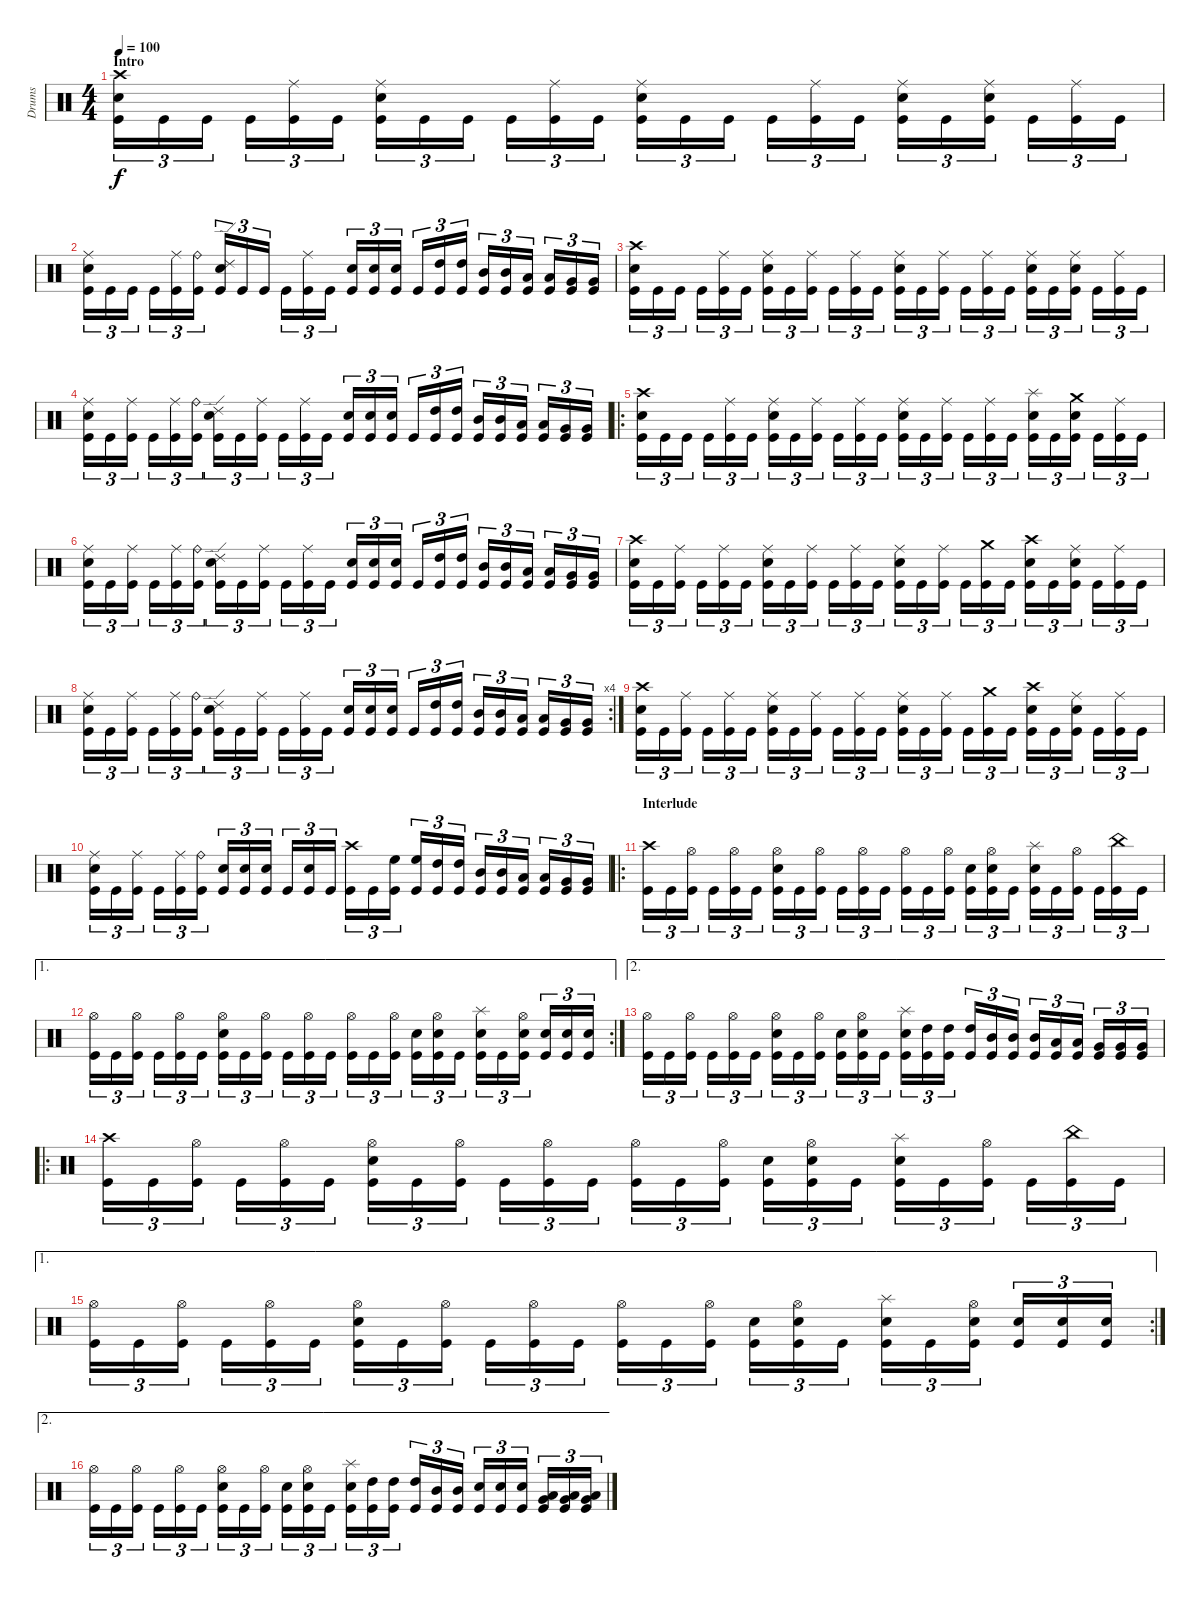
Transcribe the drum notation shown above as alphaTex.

\track ("Drums" "Drums") {instrument percussion}
\staff {score}
\articulation defaults
\ts (4 4)
\section ("" "Intro")
\tempo 100
\clef neutral
\ks c
("Crash high (hit)" "Electric Snare (hit)" "Kick (hit)").16{tu (3 2) dy f} "Kick (hit)".16{tu (3 2)} "Kick (hit)".16{tu (3 2)} "Kick (hit)".16{tu (3 2)} ("Ride (middle)" "Kick (hit)").16{tu (3 2)} "Kick (hit)".16{tu (3 2)} ("Ride (middle)" "Electric Snare (hit)" "Kick (hit)").16{tu (3 2)} "Kick (hit)".16{tu (3 2)} "Kick (hit)".16{tu (3 2)} "Kick (hit)".16{tu (3 2)} ("Ride (middle)" "Kick (hit)").16{tu (3 2)} "Kick (hit)".16{tu (3 2)} ("Ride (middle)" "Electric Snare (hit)" "Kick (hit)").16{tu (3 2)} "Kick (hit)".16{tu (3 2)} "Kick (hit)".16{tu (3 2)} "Kick (hit)".16{tu (3 2)} ("Ride (middle)" "Kick (hit)").16{tu (3 2)} "Kick (hit)".16{tu (3 2)} ("Ride (middle)" "Electric Snare (hit)" "Kick (hit)").16{tu (3 2)} "Kick (hit)".16{tu (3 2)} ("Ride (middle)" "Electric Snare (hit)" "Kick (hit)").16{tu (3 2)} "Kick (hit)".16{tu (3 2)} ("Ride (middle)" "Kick (hit)").16{tu (3 2)} "Kick (hit)".16{tu (3 2)} |
("Ride (middle)" "Electric Snare (hit)" "Kick (hit)").16{tu (3 2)} "Kick (hit)".16{tu (3 2)} "Kick (hit)".16{tu (3 2)} "Kick (hit)".16{tu (3 2)} ("Ride (middle)" "Kick (hit)").16{tu (3 2)} ("Ride (bell)" "Kick (hit)").16{tu (3 2)} ("Ride (edge) 2" "Electric Snare (hit)" "Kick (hit)").16{tu (3 2)} "Kick (hit)".16{tu (3 2)} "Kick (hit)".16{tu (3 2)} "Kick (hit)".16{tu (3 2)} ("Ride (middle)" "Kick (hit)").16{tu (3 2)} "Kick (hit)".16{tu (3 2)} ("Electric Snare (hit)" "Kick (hit)").16{tu (3 2)} ("Electric Snare (hit)" "Kick (hit)").16{tu (3 2)} ("Electric Snare (hit)" "Kick (hit)").16{tu (3 2)} "Kick (hit)".16{tu (3 2)} ("High Tom (hit)" "Kick (hit)").16{tu (3 2)} ("High Tom (hit)" "Kick (hit)").16{tu (3 2)} ("Mid Tom (hit)" "Kick (hit)").16{tu (3 2)} ("Mid Tom (hit)" "Kick (hit)").16{tu (3 2)} ("Low Tom (hit)" "Kick (hit)").16{tu (3 2)} ("Low Tom (hit)" "Kick (hit)").16{tu (3 2)} ("Very Low Tom (hit)" "Kick (hit)").16{tu (3 2)} ("Very Low Tom (hit)" "Kick (hit)").16{tu (3 2)} |
("Crash high (hit)" "Electric Snare (hit)" "Kick (hit)").16{tu (3 2)} "Kick (hit)".16{tu (3 2)} "Kick (hit)".16{tu (3 2)} "Kick (hit)".16{tu (3 2)} ("Ride (middle)" "Kick (hit)").16{tu (3 2)} "Kick (hit)".16{tu (3 2)} ("Ride (middle)" "Electric Snare (hit)" "Kick (hit)").16{tu (3 2)} "Kick (hit)".16{tu (3 2)} ("Ride (middle)" "Kick (hit)").16{tu (3 2)} "Kick (hit)".16{tu (3 2)} ("Ride (middle)" "Kick (hit)").16{tu (3 2)} "Kick (hit)".16{tu (3 2)} ("Ride (middle)" "Electric Snare (hit)" "Kick (hit)").16{tu (3 2)} "Kick (hit)".16{tu (3 2)} ("Ride (middle)" "Kick (hit)").16{tu (3 2)} "Kick (hit)".16{tu (3 2)} ("Ride (middle)" "Kick (hit)").16{tu (3 2)} "Kick (hit)".16{tu (3 2)} ("Ride (middle)" "Electric Snare (hit)" "Kick (hit)").16{tu (3 2)} "Kick (hit)".16{tu (3 2)} ("Ride (middle)" "Electric Snare (hit)" "Kick (hit)").16{tu (3 2)} "Kick (hit)".16{tu (3 2)} ("Ride (middle)" "Kick (hit)").16{tu (3 2)} "Kick (hit)".16{tu (3 2)} |
("Ride (middle)" "Electric Snare (hit)" "Kick (hit)").16{tu (3 2)} "Kick (hit)".16{tu (3 2)} ("Ride (middle)" "Kick (hit)").16{tu (3 2)} "Kick (hit)".16{tu (3 2)} ("Ride (middle)" "Kick (hit)").16{tu (3 2)} ("Ride (bell)" "Kick (hit)").16{tu (3 2)} ("Ride (edge) 2" "Electric Snare (hit)" "Kick (hit)").16{tu (3 2)} "Kick (hit)".16{tu (3 2)} ("Ride (middle)" "Kick (hit)").16{tu (3 2)} "Kick (hit)".16{tu (3 2)} ("Ride (middle)" "Kick (hit)").16{tu (3 2)} "Kick (hit)".16{tu (3 2)} ("Electric Snare (hit)" "Kick (hit)").16{tu (3 2)} ("Electric Snare (hit)" "Kick (hit)").16{tu (3 2)} ("Electric Snare (hit)" "Kick (hit)").16{tu (3 2)} "Kick (hit)".16{tu (3 2)} ("High Tom (hit)" "Kick (hit)").16{tu (3 2)} ("High Tom (hit)" "Kick (hit)").16{tu (3 2)} ("Mid Tom (hit)" "Kick (hit)").16{tu (3 2)} ("Mid Tom (hit)" "Kick (hit)").16{tu (3 2)} ("Low Tom (hit)" "Kick (hit)").16{tu (3 2)} ("Low Tom (hit)" "Kick (hit)").16{tu (3 2)} ("Very Low Tom (hit)" "Kick (hit)").16{tu (3 2)} ("Very Low Tom (hit)" "Kick (hit)").16{tu (3 2)} |
\ro
("Crash high (hit)" "Electric Snare (hit)" "Kick (hit)").16{tu (3 2)} "Kick (hit)".16{tu (3 2)} "Kick (hit)".16{tu (3 2)} "Kick (hit)".16{tu (3 2)} ("Ride (middle)" "Kick (hit)").16{tu (3 2)} "Kick (hit)".16{tu (3 2)} ("Ride (middle)" "Electric Snare (hit)" "Kick (hit)").16{tu (3 2)} "Kick (hit)".16{tu (3 2)} ("Ride (middle)" "Kick (hit)").16{tu (3 2)} "Kick (hit)".16{tu (3 2)} ("Ride (middle)" "Kick (hit)").16{tu (3 2)} "Kick (hit)".16{tu (3 2)} ("Ride (middle)" "Electric Snare (hit)" "Kick (hit)").16{tu (3 2)} "Kick (hit)".16{tu (3 2)} ("Ride (middle)" "Kick (hit)").16{tu (3 2)} "Kick (hit)".16{tu (3 2)} ("Ride (middle)" "Kick (hit)").16{tu (3 2)} "Kick (hit)".16{tu (3 2)} ("Splash (hit)" "Electric Snare (hit)" "Kick (hit)").16{tu (3 2)} "Kick (hit)".16{tu (3 2)} ("Crash medium (hit)" "Electric Snare (hit)" "Kick (hit)").16{tu (3 2)} "Kick (hit)".16{tu (3 2)} ("Ride (middle)" "Kick (hit)").16{tu (3 2)} "Kick (hit)".16{tu (3 2)} |
("Ride (middle)" "Electric Snare (hit)" "Kick (hit)").16{tu (3 2)} "Kick (hit)".16{tu (3 2)} ("Ride (middle)" "Kick (hit)").16{tu (3 2)} "Kick (hit)".16{tu (3 2)} ("Ride (middle)" "Kick (hit)").16{tu (3 2)} ("Ride (bell)" "Kick (hit)").16{tu (3 2)} ("Ride (edge) 2" "Electric Snare (hit)" "Kick (hit)").16{tu (3 2)} "Kick (hit)".16{tu (3 2)} ("Ride (middle)" "Kick (hit)").16{tu (3 2)} "Kick (hit)".16{tu (3 2)} ("Ride (middle)" "Kick (hit)").16{tu (3 2)} "Kick (hit)".16{tu (3 2)} ("Electric Snare (hit)" "Kick (hit)").16{tu (3 2)} ("Electric Snare (hit)" "Kick (hit)").16{tu (3 2)} ("Electric Snare (hit)" "Kick (hit)").16{tu (3 2)} "Kick (hit)".16{tu (3 2)} ("High Tom (hit)" "Kick (hit)").16{tu (3 2)} ("High Tom (hit)" "Kick (hit)").16{tu (3 2)} ("Mid Tom (hit)" "Kick (hit)").16{tu (3 2)} ("Mid Tom (hit)" "Kick (hit)").16{tu (3 2)} ("Low Tom (hit)" "Kick (hit)").16{tu (3 2)} ("Low Tom (hit)" "Kick (hit)").16{tu (3 2)} ("Very Low Tom (hit)" "Kick (hit)").16{tu (3 2)} ("Very Low Tom (hit)" "Kick (hit)").16{tu (3 2)} |
("Crash high (hit)" "Electric Snare (hit)" "Kick (hit)").16{tu (3 2)} "Kick (hit)".16{tu (3 2)} ("Ride (middle)" "Kick (hit)").16{tu (3 2)} "Kick (hit)".16{tu (3 2)} ("Ride (middle)" "Kick (hit)").16{tu (3 2)} "Kick (hit)".16{tu (3 2)} ("Ride (middle)" "Electric Snare (hit)" "Kick (hit)").16{tu (3 2)} "Kick (hit)".16{tu (3 2)} ("Ride (middle)" "Kick (hit)").16{tu (3 2)} "Kick (hit)".16{tu (3 2)} ("Ride (middle)" "Kick (hit)").16{tu (3 2)} "Kick (hit)".16{tu (3 2)} ("Ride (middle)" "Electric Snare (hit)" "Kick (hit)").16{tu (3 2)} "Kick (hit)".16{tu (3 2)} ("Ride (middle)" "Kick (hit)").16{tu (3 2)} "Kick (hit)".16{tu (3 2)} ("Crash medium (hit)" "Kick (hit)").16{tu (3 2)} "Kick (hit)".16{tu (3 2)} ("Crash high (hit)" "Electric Snare (hit)" "Kick (hit)").16{tu (3 2)} "Kick (hit)".16{tu (3 2)} ("Ride (middle)" "Electric Snare (hit)" "Kick (hit)").16{tu (3 2)} "Kick (hit)".16{tu (3 2)} ("Ride (middle)" "Kick (hit)").16{tu (3 2)} "Kick (hit)".16{tu (3 2)} |
\rc 4
("Ride (middle)" "Electric Snare (hit)" "Kick (hit)").16{tu (3 2)} "Kick (hit)".16{tu (3 2)} ("Ride (middle)" "Kick (hit)").16{tu (3 2)} "Kick (hit)".16{tu (3 2)} ("Ride (middle)" "Kick (hit)").16{tu (3 2)} ("Ride (bell)" "Kick (hit)").16{tu (3 2)} ("Ride (edge) 2" "Electric Snare (hit)" "Kick (hit)").16{tu (3 2)} "Kick (hit)".16{tu (3 2)} ("Ride (middle)" "Kick (hit)").16{tu (3 2)} "Kick (hit)".16{tu (3 2)} ("Ride (middle)" "Kick (hit)").16{tu (3 2)} "Kick (hit)".16{tu (3 2)} ("Electric Snare (hit)" "Kick (hit)").16{tu (3 2)} ("Electric Snare (hit)" "Kick (hit)").16{tu (3 2)} ("Electric Snare (hit)" "Kick (hit)").16{tu (3 2)} "Kick (hit)".16{tu (3 2)} ("High Tom (hit)" "Kick (hit)").16{tu (3 2)} ("High Tom (hit)" "Kick (hit)").16{tu (3 2)} ("Mid Tom (hit)" "Kick (hit)").16{tu (3 2)} ("Mid Tom (hit)" "Kick (hit)").16{tu (3 2)} ("Low Tom (hit)" "Kick (hit)").16{tu (3 2)} ("Low Tom (hit)" "Kick (hit)").16{tu (3 2)} ("Very Low Tom (hit)" "Kick (hit)").16{tu (3 2)} ("Very Low Tom (hit)" "Kick (hit)").16{tu (3 2)} |
("Crash high (hit)" "Electric Snare (hit)" "Kick (hit)").16{tu (3 2)} "Kick (hit)".16{tu (3 2)} ("Ride (middle)" "Kick (hit)").16{tu (3 2)} "Kick (hit)".16{tu (3 2)} ("Ride (middle)" "Kick (hit)").16{tu (3 2)} "Kick (hit)".16{tu (3 2)} ("Ride (middle)" "Electric Snare (hit)" "Kick (hit)").16{tu (3 2)} "Kick (hit)".16{tu (3 2)} ("Ride (middle)" "Kick (hit)").16{tu (3 2)} "Kick (hit)".16{tu (3 2)} ("Ride (middle)" "Kick (hit)").16{tu (3 2)} "Kick (hit)".16{tu (3 2)} ("Ride (middle)" "Electric Snare (hit)" "Kick (hit)").16{tu (3 2)} "Kick (hit)".16{tu (3 2)} ("Ride (middle)" "Kick (hit)").16{tu (3 2)} "Kick (hit)".16{tu (3 2)} ("Crash medium (hit)" "Kick (hit)").16{tu (3 2)} "Kick (hit)".16{tu (3 2)} ("Crash high (hit)" "Electric Snare (hit)" "Kick (hit)").16{tu (3 2)} "Kick (hit)".16{tu (3 2)} ("Ride (middle)" "Electric Snare (hit)" "Kick (hit)").16{tu (3 2)} "Kick (hit)".16{tu (3 2)} ("Ride (middle)" "Kick (hit)").16{tu (3 2)} "Kick (hit)".16{tu (3 2)} |
("Ride (middle)" "Electric Snare (hit)" "Kick (hit)").16{tu (3 2)} "Kick (hit)".16{tu (3 2)} ("Ride (middle)" "Kick (hit)").16{tu (3 2)} "Kick (hit)".16{tu (3 2)} ("Ride (middle)" "Kick (hit)").16{tu (3 2)} ("Ride (bell)" "Kick (hit)").16{tu (3 2)} ("Electric Snare (hit)" "Kick (hit)").16{tu (3 2)} ("Electric Snare (hit)" "Kick (hit)").16{tu (3 2)} ("Electric Snare (hit)" "Kick (hit)").16{tu (3 2)} "Kick (hit)".16{tu (3 2)} ("Electric Snare (hit)" "Kick (hit)").16{tu (3 2)} "Kick (hit)".16{tu (3 2)} ("Crash high (hit)" "Kick (hit)").16{tu (3 2)} "Kick (hit)".16{tu (3 2)} ("High Floor Tom (hit)" "Kick (hit)").16{tu (3 2)} ("High Floor Tom (hit)" "Kick (hit)").16{tu (3 2)} ("High Tom (hit)" "Kick (hit)").16{tu (3 2)} ("High Tom (hit)" "Kick (hit)").16{tu (3 2)} ("Mid Tom (hit)" "Kick (hit)").16{tu (3 2)} ("Mid Tom (hit)" "Kick (hit)").16{tu (3 2)} ("Low Tom (hit)" "Kick (hit)").16{tu (3 2)} ("Low Tom (hit)" "Kick (hit)").16{tu (3 2)} ("Very Low Tom (hit)" "Kick (hit)").16{tu (3 2)} ("Very Low Tom (hit)" "Kick (hit)").16{tu (3 2)} |
\ro
\section ("" "Interlude")
("Crash high (hit)" "Kick (hit)").16{tu (3 2)} "Kick (hit)".16{tu (3 2)} ("Hi-Hat (open)" "Kick (hit)").16{tu (3 2)} "Kick (hit)".16{tu (3 2)} ("Hi-Hat (open)" "Kick (hit)").16{tu (3 2)} "Kick (hit)".16{tu (3 2)} ("Hi-Hat (open)" "Electric Snare (hit)" "Kick (hit)").16{tu (3 2)} "Kick (hit)".16{tu (3 2)} ("Hi-Hat (open)" "Kick (hit)").16{tu (3 2)} "Kick (hit)".16{tu (3 2)} ("Hi-Hat (open)" "Kick (hit)").16{tu (3 2)} "Kick (hit)".16{tu (3 2)} ("Hi-Hat (open)" "Kick (hit)").16{tu (3 2)} "Kick (hit)".16{tu (3 2)} ("Hi-Hat (open)" "Kick (hit)").16{tu (3 2)} ("Electric Snare (hit)" "Kick (hit)").16{tu (3 2)} ("Hi-Hat (open)" "Electric Snare (hit)" "Kick (hit)").16{tu (3 2)} "Kick (hit)".16{tu (3 2)} ("Splash (hit)" "Electric Snare (hit)" "Kick (hit)").16{tu (3 2)} "Kick (hit)".16{tu (3 2)} ("Hi-Hat (open)" "Kick (hit)").16{tu (3 2)} "Kick (hit)".16{tu (3 2)} ("China (hit)" "Kick (hit)").16{tu (3 2)} "Kick (hit)".16{tu (3 2)} |
\ae 1
\rc 2
("Hi-Hat (open)" "Kick (hit)").16{tu (3 2)} "Kick (hit)".16{tu (3 2)} ("Hi-Hat (open)" "Kick (hit)").16{tu (3 2)} "Kick (hit)".16{tu (3 2)} ("Hi-Hat (open)" "Kick (hit)").16{tu (3 2)} "Kick (hit)".16{tu (3 2)} ("Hi-Hat (open)" "Electric Snare (hit)" "Kick (hit)").16{tu (3 2)} "Kick (hit)".16{tu (3 2)} ("Hi-Hat (open)" "Kick (hit)").16{tu (3 2)} "Kick (hit)".16{tu (3 2)} ("Hi-Hat (open)" "Kick (hit)").16{tu (3 2)} "Kick (hit)".16{tu (3 2)} ("Hi-Hat (open)" "Kick (hit)").16{tu (3 2)} "Kick (hit)".16{tu (3 2)} ("Hi-Hat (open)" "Kick (hit)").16{tu (3 2)} ("Electric Snare (hit)" "Kick (hit)").16{tu (3 2)} ("Hi-Hat (open)" "Electric Snare (hit)" "Kick (hit)").16{tu (3 2)} "Kick (hit)".16{tu (3 2)} ("Splash (hit)" "Electric Snare (hit)" "Kick (hit)").16{tu (3 2)} "Kick (hit)".16{tu (3 2)} ("Hi-Hat (open)" "Electric Snare (hit)" "Kick (hit)").16{tu (3 2)} ("Electric Snare (hit)" "Kick (hit)").16{tu (3 2)} ("Electric Snare (hit)" "Kick (hit)").16{tu (3 2)} ("Electric Snare (hit)" "Kick (hit)").16{tu (3 2)} |
\ae 2
("Hi-Hat (open)" "Kick (hit)").16{tu (3 2)} "Kick (hit)".16{tu (3 2)} ("Hi-Hat (open)" "Kick (hit)").16{tu (3 2)} "Kick (hit)".16{tu (3 2)} ("Hi-Hat (open)" "Kick (hit)").16{tu (3 2)} "Kick (hit)".16{tu (3 2)} ("Hi-Hat (open)" "Electric Snare (hit)" "Kick (hit)").16{tu (3 2)} "Kick (hit)".16{tu (3 2)} ("Hi-Hat (open)" "Kick (hit)").16{tu (3 2)} ("Electric Snare (hit)" "Kick (hit)").16{tu (3 2)} ("Hi-Hat (open)" "Electric Snare (hit)" "Kick (hit)").16{tu (3 2)} "Kick (hit)".16{tu (3 2)} ("Splash (hit)" "Electric Snare (hit)" "Kick (hit)").16{tu (3 2)} ("High Tom (hit)" "Kick (hit)").16{tu (3 2)} ("High Tom (hit)" "Kick (hit)").16{tu (3 2)} ("High Tom (hit)" "Kick (hit)").16{tu (3 2)} ("Mid Tom (hit)" "Kick (hit)").16{tu (3 2)} ("Mid Tom (hit)" "Kick (hit)").16{tu (3 2)} ("Mid Tom (hit)" "Kick (hit)").16{tu (3 2)} ("Low Tom (hit)" "Kick (hit)").16{tu (3 2)} ("Low Tom (hit)" "Kick (hit)").16{tu (3 2)} ("Very Low Tom (hit)" "Kick (hit)").16{tu (3 2)} ("Very Low Tom (hit)" "Kick (hit)").16{tu (3 2)} ("Very Low Tom (hit)" "Kick (hit)").16{tu (3 2)} |
\ro
("Crash high (hit)" "Kick (hit)").16{tu (3 2)} "Kick (hit)".16{tu (3 2)} ("Hi-Hat (open)" "Kick (hit)").16{tu (3 2)} "Kick (hit)".16{tu (3 2)} ("Hi-Hat (open)" "Kick (hit)").16{tu (3 2)} "Kick (hit)".16{tu (3 2)} ("Hi-Hat (open)" "Electric Snare (hit)" "Kick (hit)").16{tu (3 2)} "Kick (hit)".16{tu (3 2)} ("Hi-Hat (open)" "Kick (hit)").16{tu (3 2)} "Kick (hit)".16{tu (3 2)} ("Hi-Hat (open)" "Kick (hit)").16{tu (3 2)} "Kick (hit)".16{tu (3 2)} ("Hi-Hat (open)" "Kick (hit)").16{tu (3 2)} "Kick (hit)".16{tu (3 2)} ("Hi-Hat (open)" "Kick (hit)").16{tu (3 2)} ("Electric Snare (hit)" "Kick (hit)").16{tu (3 2)} ("Hi-Hat (open)" "Electric Snare (hit)" "Kick (hit)").16{tu (3 2)} "Kick (hit)".16{tu (3 2)} ("Splash (hit)" "Electric Snare (hit)" "Kick (hit)").16{tu (3 2)} "Kick (hit)".16{tu (3 2)} ("Hi-Hat (open)" "Kick (hit)").16{tu (3 2)} "Kick (hit)".16{tu (3 2)} ("China (hit)" "Kick (hit)").16{tu (3 2)} "Kick (hit)".16{tu (3 2)} |
\ae 1
\rc 2
("Hi-Hat (open)" "Kick (hit)").16{tu (3 2)} "Kick (hit)".16{tu (3 2)} ("Hi-Hat (open)" "Kick (hit)").16{tu (3 2)} "Kick (hit)".16{tu (3 2)} ("Hi-Hat (open)" "Kick (hit)").16{tu (3 2)} "Kick (hit)".16{tu (3 2)} ("Hi-Hat (open)" "Electric Snare (hit)" "Kick (hit)").16{tu (3 2)} "Kick (hit)".16{tu (3 2)} ("Hi-Hat (open)" "Kick (hit)").16{tu (3 2)} "Kick (hit)".16{tu (3 2)} ("Hi-Hat (open)" "Kick (hit)").16{tu (3 2)} "Kick (hit)".16{tu (3 2)} ("Hi-Hat (open)" "Kick (hit)").16{tu (3 2)} "Kick (hit)".16{tu (3 2)} ("Hi-Hat (open)" "Kick (hit)").16{tu (3 2)} ("Electric Snare (hit)" "Kick (hit)").16{tu (3 2)} ("Hi-Hat (open)" "Electric Snare (hit)" "Kick (hit)").16{tu (3 2)} "Kick (hit)".16{tu (3 2)} ("Splash (hit)" "Electric Snare (hit)" "Kick (hit)").16{tu (3 2)} "Kick (hit)".16{tu (3 2)} ("Hi-Hat (open)" "Electric Snare (hit)" "Kick (hit)").16{tu (3 2)} ("Electric Snare (hit)" "Kick (hit)").16{tu (3 2)} ("Electric Snare (hit)" "Kick (hit)").16{tu (3 2)} ("Electric Snare (hit)" "Kick (hit)").16{tu (3 2)} |
\ae 2
("Hi-Hat (open)" "Kick (hit)").16{tu (3 2)} "Kick (hit)".16{tu (3 2)} ("Hi-Hat (open)" "Kick (hit)").16{tu (3 2)} "Kick (hit)".16{tu (3 2)} ("Hi-Hat (open)" "Kick (hit)").16{tu (3 2)} "Kick (hit)".16{tu (3 2)} ("Hi-Hat (open)" "Electric Snare (hit)" "Kick (hit)").16{tu (3 2)} "Kick (hit)".16{tu (3 2)} ("Hi-Hat (open)" "Kick (hit)").16{tu (3 2)} ("Electric Snare (hit)" "Kick (hit)").16{tu (3 2)} ("Hi-Hat (open)" "Electric Snare (hit)" "Kick (hit)").16{tu (3 2)} "Kick (hit)".16{tu (3 2)} ("Splash (hit)" "Electric Snare (hit)" "Kick (hit)").16{tu (3 2)} ("High Tom (hit)" "Kick (hit)").16{tu (3 2)} ("High Tom (hit)" "Kick (hit)").16{tu (3 2)} ("High Tom (hit)" "Kick (hit)").16{tu (3 2)} ("Mid Tom (hit)" "Kick (hit)").16{tu (3 2)} ("Mid Tom (hit)" "Kick (hit)").16{tu (3 2)} ("Electric Snare (hit)" "Kick (hit)").16{tu (3 2)} ("Electric Snare (hit)" "Kick (hit)").16{tu (3 2)} ("Electric Snare (hit)" "Kick (hit)").16{tu (3 2)} ("Low Tom (hit)" "Very Low Tom (hit)" "Kick (hit)").16{tu (3 2)} ("Low Tom (hit)" "Very Low Tom (hit)" "Kick (hit)").16{tu (3 2)} ("Low Tom (hit)" "Very Low Tom (hit)" "Kick (hit)").16{tu (3 2)}
